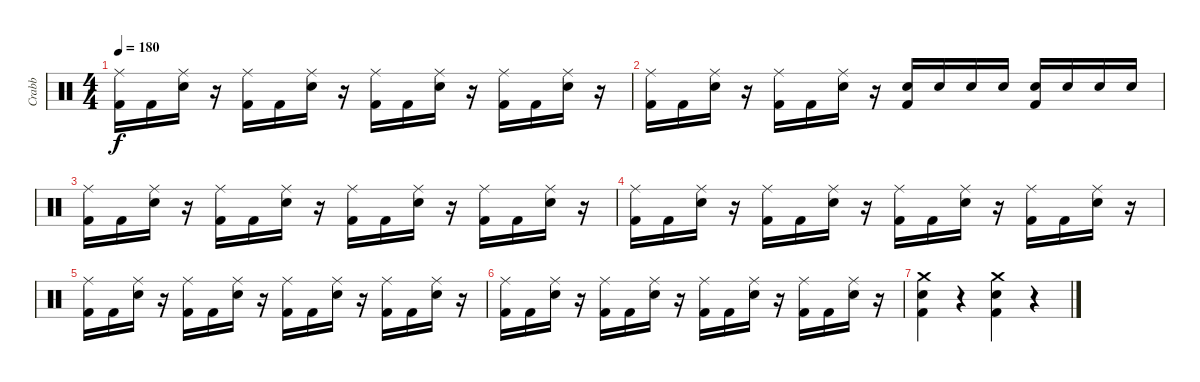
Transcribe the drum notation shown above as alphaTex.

\track ("Crabb" "Crabb") {instrument percussion}
\staff {score}
\articulation defaults
\ts (4 4)
\tempo 180
\clef neutral
\ks c
("Ride (middle)" "Kick (hit) 2").16{dy f} "Kick (hit) 2".16 ("Ride (middle)" "Electric Snare (hit)").16 r.16 ("Ride (middle)" "Kick (hit) 2").16 "Kick (hit) 2".16 ("Ride (middle)" "Electric Snare (hit)").16 r.16 ("Ride (middle)" "Kick (hit) 2").16 "Kick (hit) 2".16 ("Ride (middle)" "Electric Snare (hit)").16 r.16 ("Ride (middle)" "Kick (hit) 2").16 "Kick (hit) 2".16 ("Ride (middle)" "Electric Snare (hit)").16 r.16 |
("Ride (middle)" "Kick (hit) 2").16 "Kick (hit) 2".16 ("Ride (middle)" "Electric Snare (hit)").16 r.16 ("Ride (middle)" "Kick (hit) 2").16 "Kick (hit) 2".16 ("Ride (middle)" "Electric Snare (hit)").16 r.16 ("Electric Snare (hit)" "Kick (hit) 2").16 "Electric Snare (hit)".16 "Electric Snare (hit)".16 "Electric Snare (hit)".16 ("Electric Snare (hit)" "Kick (hit) 2").16 "Electric Snare (hit)".16 "Electric Snare (hit)".16 "Electric Snare (hit)".16 |
("Ride (middle)" "Kick (hit) 2").16 "Kick (hit) 2".16 ("Ride (middle)" "Electric Snare (hit)").16 r.16 ("Ride (middle)" "Kick (hit) 2").16 "Kick (hit) 2".16 ("Ride (middle)" "Electric Snare (hit)").16 r.16 ("Ride (middle)" "Kick (hit) 2").16 "Kick (hit) 2".16 ("Ride (middle)" "Electric Snare (hit)").16 r.16 ("Ride (middle)" "Kick (hit) 2").16 "Kick (hit) 2".16 ("Ride (middle)" "Electric Snare (hit)").16 r.16 |
("Ride (middle)" "Kick (hit) 2").16 "Kick (hit) 2".16 ("Ride (middle)" "Electric Snare (hit)").16 r.16 ("Ride (middle)" "Kick (hit) 2").16 "Kick (hit) 2".16 ("Ride (middle)" "Electric Snare (hit)").16 r.16 ("Ride (middle)" "Kick (hit) 2").16 "Kick (hit) 2".16 ("Ride (middle)" "Electric Snare (hit)").16 r.16 ("Ride (middle)" "Kick (hit) 2").16 "Kick (hit) 2".16 ("Ride (middle)" "Electric Snare (hit)").16 r.16 |
("Ride (middle)" "Kick (hit) 2").16 "Kick (hit) 2".16 ("Ride (middle)" "Electric Snare (hit)").16 r.16 ("Ride (middle)" "Kick (hit) 2").16 "Kick (hit) 2".16 ("Ride (middle)" "Electric Snare (hit)").16 r.16 ("Ride (middle)" "Kick (hit) 2").16 "Kick (hit) 2".16 ("Ride (middle)" "Electric Snare (hit)").16 r.16 ("Ride (middle)" "Kick (hit) 2").16 "Kick (hit) 2".16 ("Ride (middle)" "Electric Snare (hit)").16 r.16 |
("Ride (middle)" "Kick (hit) 2").16 "Kick (hit) 2".16 ("Ride (middle)" "Electric Snare (hit)").16 r.16 ("Ride (middle)" "Kick (hit) 2").16 "Kick (hit) 2".16 ("Ride (middle)" "Electric Snare (hit)").16 r.16 ("Ride (middle)" "Kick (hit) 2").16 "Kick (hit) 2".16 ("Ride (middle)" "Electric Snare (hit)").16 r.16 ("Ride (middle)" "Kick (hit) 2").16 "Kick (hit) 2".16 ("Ride (middle)" "Electric Snare (hit)").16 r.16 |
("Electric Snare (hit)" "Crash medium (hit)" "Kick (hit) 2").4 r.4 ("Electric Snare (hit)" "Crash medium (hit)" "Kick (hit) 2").4 r.4
